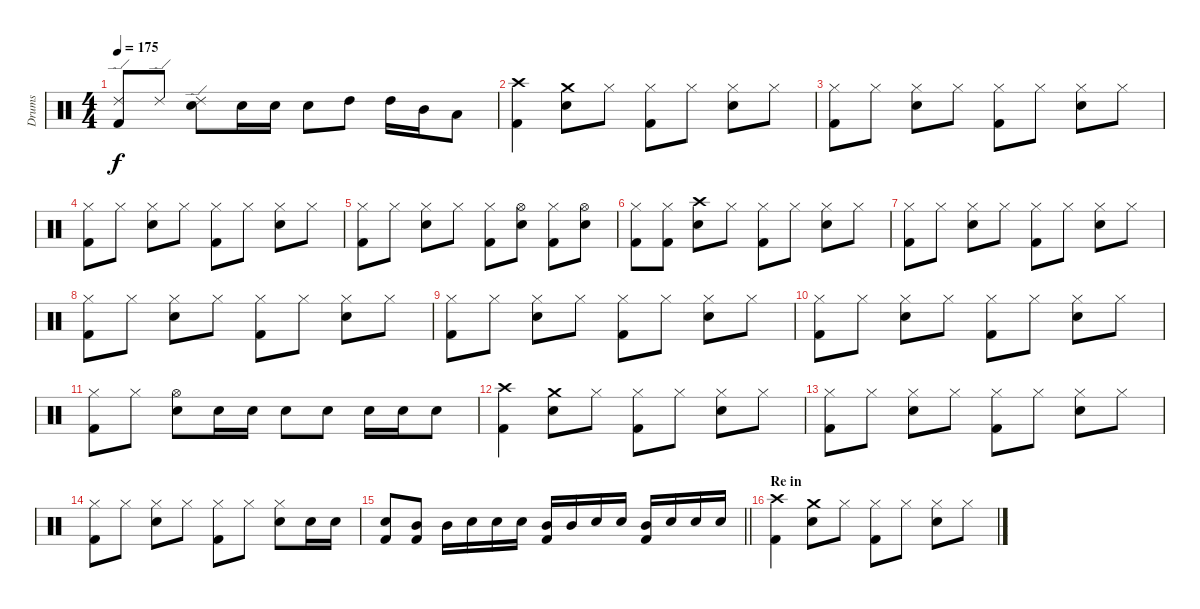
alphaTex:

\track ("Drums" "Drums") {instrument percussion}
\staff {score}
\articulation defaults
\ts (4 4)
\tempo 175
\clef neutral
\ks c
("Ride (edge) 2" "Kick (hit) 2").8{dy f} "Ride (edge) 2".8 ("Ride (edge) 2" "Snare (hit) 2").8 "Snare (hit) 2".16 "Snare (hit) 2".16 "Snare (hit) 2".8 "High Tom (hit)".8 "High Tom (hit)".16 "Mid Tom (hit)".16 "Low Tom (hit)".8 |
("Crash high (hit)" "Kick (hit) 2").4 ("Crash medium (hit)" "Snare (hit) 2").8 "Hi-Hat (closed)".8 ("Hi-Hat (closed)" "Kick (hit) 2").8 "Hi-Hat (closed)".8 ("Hi-Hat (closed)" "Snare (hit) 2").8 "Hi-Hat (closed)".8 |
("Hi-Hat (closed)" "Kick (hit) 2").8 "Hi-Hat (closed)".8 ("Hi-Hat (closed)" "Snare (hit) 2").8 "Hi-Hat (closed)".8 ("Hi-Hat (closed)" "Kick (hit) 2").8 "Hi-Hat (closed)".8 ("Hi-Hat (closed)" "Snare (hit) 2").8 "Hi-Hat (closed)".8 |
("Hi-Hat (closed)" "Kick (hit) 2").8 "Hi-Hat (closed)".8 ("Hi-Hat (closed)" "Snare (hit) 2").8 "Hi-Hat (closed)".8 ("Hi-Hat (closed)" "Kick (hit) 2").8 "Hi-Hat (closed)".8 ("Hi-Hat (closed)" "Snare (hit) 2").8 "Hi-Hat (closed)".8 |
("Hi-Hat (closed)" "Kick (hit) 2").8 "Hi-Hat (closed)".8 ("Hi-Hat (closed)" "Snare (hit) 2").8 "Hi-Hat (closed)".8 ("Hi-Hat (closed)" "Kick (hit) 2").8 ("Hi-Hat (open)" "Snare (hit) 2").8 ("Hi-Hat (closed)" "Kick (hit) 2").8 ("Hi-Hat (open)" "Snare (hit) 2").8 |
("Hi-Hat (closed)" "Kick (hit) 2").8 ("Hi-Hat (closed)" "Kick (hit) 2").8 ("Crash high (hit)" "Snare (hit) 2").8 "Hi-Hat (closed)".8 ("Hi-Hat (closed)" "Kick (hit) 2").8 "Hi-Hat (closed)".8 ("Hi-Hat (closed)" "Snare (hit) 2").8 "Hi-Hat (closed)".8 |
("Hi-Hat (closed)" "Kick (hit) 2").8 "Hi-Hat (closed)".8 ("Hi-Hat (closed)" "Snare (hit) 2").8 "Hi-Hat (closed)".8 ("Hi-Hat (closed)" "Kick (hit) 2").8 "Hi-Hat (closed)".8 ("Hi-Hat (closed)" "Snare (hit) 2").8 "Hi-Hat (closed)".8 |
("Hi-Hat (closed)" "Kick (hit) 2").8 "Hi-Hat (closed)".8 ("Hi-Hat (closed)" "Snare (hit) 2").8 "Hi-Hat (closed)".8 ("Hi-Hat (closed)" "Kick (hit) 2").8 "Hi-Hat (closed)".8 ("Hi-Hat (closed)" "Snare (hit) 2").8 "Hi-Hat (closed)".8 |
("Hi-Hat (closed)" "Kick (hit) 2").8 "Hi-Hat (closed)".8 ("Hi-Hat (closed)" "Snare (hit) 2").8 "Hi-Hat (closed)".8 ("Hi-Hat (closed)" "Kick (hit) 2").8 "Hi-Hat (closed)".8 ("Hi-Hat (closed)" "Snare (hit) 2").8 "Hi-Hat (closed)".8 |
("Hi-Hat (closed)" "Kick (hit) 2").8 "Hi-Hat (closed)".8 ("Hi-Hat (closed)" "Snare (hit) 2").8 "Hi-Hat (closed)".8 ("Hi-Hat (closed)" "Kick (hit) 2").8 "Hi-Hat (closed)".8 ("Hi-Hat (closed)" "Snare (hit) 2").8 "Hi-Hat (closed)".8 |
("Hi-Hat (closed)" "Kick (hit) 2").8 "Hi-Hat (closed)".8 ("Hi-Hat (open)" "Snare (hit) 2").8 "Snare (hit) 2".16 "Snare (hit) 2".16 "Snare (hit) 2".8 "Snare (hit) 2".8 "Snare (hit) 2".16 "Snare (hit) 2".16 "Snare (hit) 2".8 |
("Crash high (hit)" "Kick (hit) 2").4 ("Crash medium (hit)" "Snare (hit) 2").8 "Hi-Hat (closed)".8 ("Hi-Hat (closed)" "Kick (hit) 2").8 "Hi-Hat (closed)".8 ("Hi-Hat (closed)" "Snare (hit) 2").8 "Hi-Hat (closed)".8 |
("Hi-Hat (closed)" "Kick (hit) 2").8 "Hi-Hat (closed)".8 ("Hi-Hat (closed)" "Snare (hit) 2").8 "Hi-Hat (closed)".8 ("Hi-Hat (closed)" "Kick (hit) 2").8 "Hi-Hat (closed)".8 ("Hi-Hat (closed)" "Snare (hit) 2").8 "Hi-Hat (closed)".8 |
("Hi-Hat (closed)" "Kick (hit) 2").8 "Hi-Hat (closed)".8 ("Hi-Hat (closed)" "Snare (hit) 2").8 "Hi-Hat (closed)".8 ("Hi-Hat (closed)" "Kick (hit) 2").8 "Hi-Hat (closed)".8 ("Hi-Hat (closed)" "Snare (hit) 2").8 "Snare (hit) 2".16 "Snare (hit) 2".16 |
\barLineRight lightlight
("Snare (hit) 2" "Kick (hit) 2").8 ("Mid Tom (hit)" "Kick (hit) 2").8 "Mid Tom (hit)".16 "Snare (hit) 2".16 "Snare (hit) 2".16 "Snare (hit) 2".16 ("Mid Tom (hit)" "Kick (hit) 2").16 "Mid Tom (hit)".16 "Snare (hit) 2".16 "Snare (hit) 2".16 ("Mid Tom (hit)" "Kick (hit) 2").16 "Snare (hit) 2".16 "Snare (hit) 2".16 "Snare (hit) 2".16 |
\section ("" "Re in")
("Crash high (hit)" "Kick (hit) 2").4 ("Crash medium (hit)" "Snare (hit) 2").8 "Hi-Hat (closed)".8 ("Hi-Hat (closed)" "Kick (hit) 2").8 "Hi-Hat (closed)".8 ("Hi-Hat (closed)" "Snare (hit) 2").8 "Hi-Hat (closed)".8
